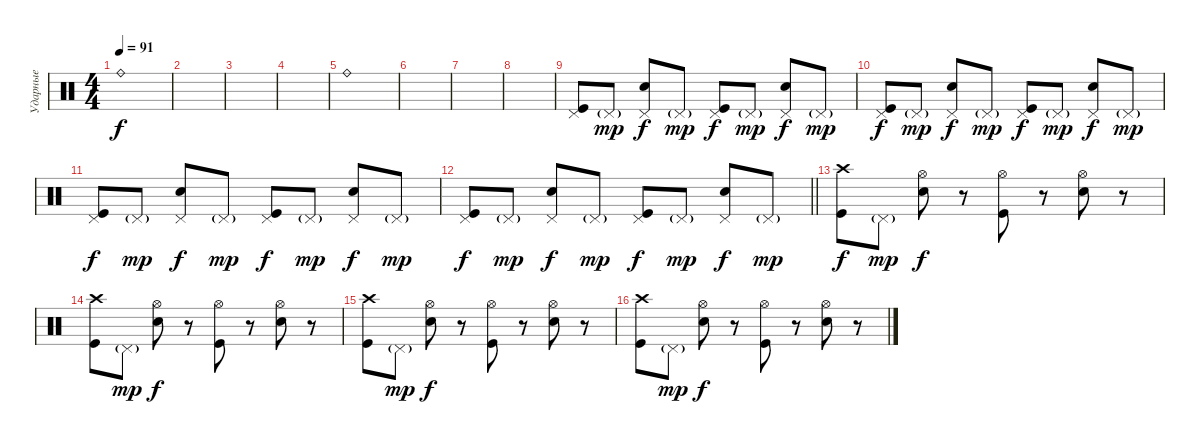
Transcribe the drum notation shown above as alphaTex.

\track ("Ударные" "Ударные") {instrument percussion}
\staff {score}
\articulation defaults
\ts (4 4)
\tempo 91
\clef neutral
\ks c "Ride (bell)".1{dy f}
|
|
|
|
"Ride (bell)".1 |
|
|
|
("Pedal Hi-Hat (hit)" "Kick (hit)").8 "Pedal Hi-Hat (hit)"{g}.8{dy mp} ("Pedal Hi-Hat (hit)" "Snare (hit) 2").8{dy f} "Pedal Hi-Hat (hit)"{g}.8{dy mp} ("Pedal Hi-Hat (hit)" "Kick (hit)").8{dy f} "Pedal Hi-Hat (hit)"{g}.8{dy mp} ("Pedal Hi-Hat (hit)" "Snare (hit) 2").8{dy f} "Pedal Hi-Hat (hit)"{g}.8{dy mp} |
("Pedal Hi-Hat (hit)" "Kick (hit)").8{dy f} "Pedal Hi-Hat (hit)"{g}.8{dy mp} ("Pedal Hi-Hat (hit)" "Snare (hit) 2").8{dy f} "Pedal Hi-Hat (hit)"{g}.8{dy mp} ("Pedal Hi-Hat (hit)" "Kick (hit)").8{dy f} "Pedal Hi-Hat (hit)"{g}.8{dy mp} ("Pedal Hi-Hat (hit)" "Snare (hit) 2").8{dy f} "Pedal Hi-Hat (hit)"{g}.8{dy mp} |
("Pedal Hi-Hat (hit)" "Kick (hit)").8{dy f} "Pedal Hi-Hat (hit)"{g}.8{dy mp} ("Pedal Hi-Hat (hit)" "Snare (hit) 2").8{dy f} "Pedal Hi-Hat (hit)"{g}.8{dy mp} ("Pedal Hi-Hat (hit)" "Kick (hit)").8{dy f} "Pedal Hi-Hat (hit)"{g}.8{dy mp} ("Pedal Hi-Hat (hit)" "Snare (hit) 2").8{dy f} "Pedal Hi-Hat (hit)"{g}.8{dy mp} |
\barLineRight lightlight
("Pedal Hi-Hat (hit)" "Kick (hit)").8{dy f} "Pedal Hi-Hat (hit)"{g}.8{dy mp} ("Pedal Hi-Hat (hit)" "Snare (hit) 2").8{dy f} "Pedal Hi-Hat (hit)"{g}.8{dy mp} ("Pedal Hi-Hat (hit)" "Kick (hit)").8{dy f} "Pedal Hi-Hat (hit)"{g}.8{dy mp} ("Pedal Hi-Hat (hit)" "Snare (hit) 2").8{dy f} "Pedal Hi-Hat (hit)"{g}.8{dy mp} |
("Crash high (hit)" "Kick (hit)").8{dy f} "Pedal Hi-Hat (hit)"{g}.8{dy mp} ("Hi-Hat (open)" "Snare (hit) 2").8{dy f} r.8 ("Hi-Hat (open)" "Kick (hit)").8 r.8 ("Hi-Hat (open)" "Snare (hit) 2").8 r.8 |
("Crash high (hit)" "Kick (hit)").8 "Pedal Hi-Hat (hit)"{g}.8{dy mp} ("Hi-Hat (open)" "Snare (hit) 2").8{dy f} r.8 ("Hi-Hat (open)" "Kick (hit)").8 r.8 ("Hi-Hat (open)" "Snare (hit) 2").8 r.8 |
("Crash high (hit)" "Kick (hit)").8 "Pedal Hi-Hat (hit)"{g}.8{dy mp} ("Hi-Hat (open)" "Snare (hit) 2").8{dy f} r.8 ("Hi-Hat (open)" "Kick (hit)").8 r.8 ("Hi-Hat (open)" "Snare (hit) 2").8 r.8 |
("Crash high (hit)" "Kick (hit)").8 "Pedal Hi-Hat (hit)"{g}.8{dy mp} ("Hi-Hat (open)" "Snare (hit) 2").8{dy f} r.8 ("Hi-Hat (open)" "Kick (hit)").8 r.8 ("Hi-Hat (open)" "Snare (hit) 2").8 r.8
